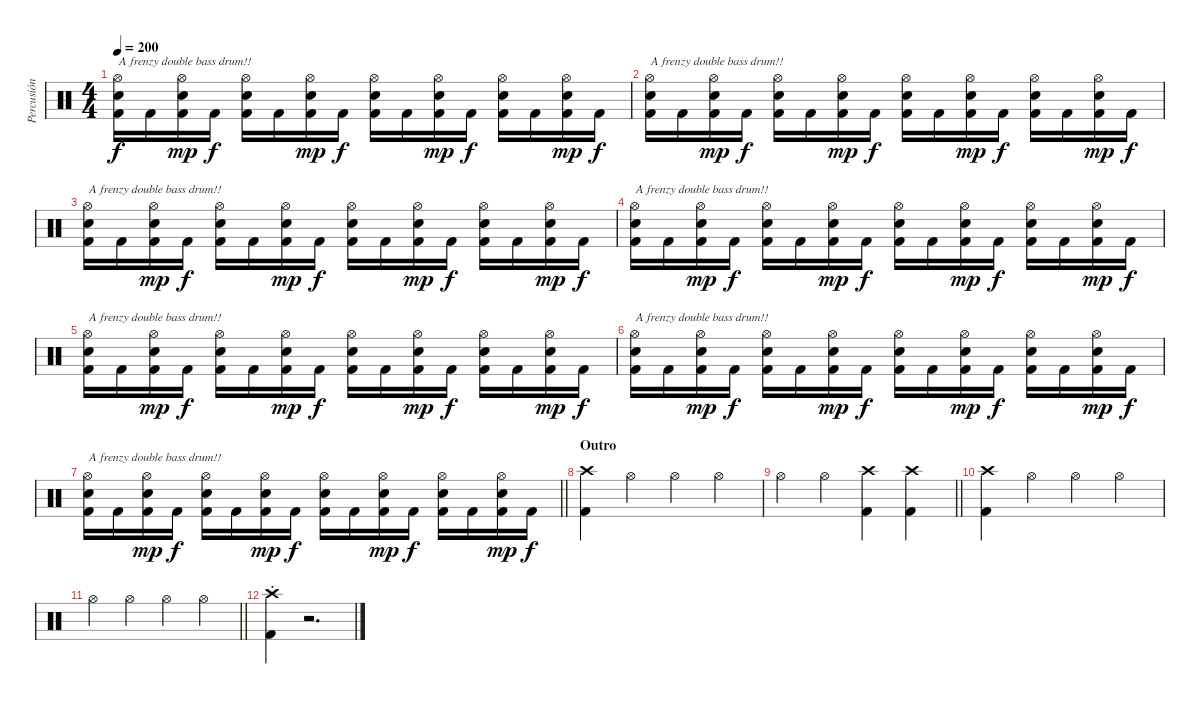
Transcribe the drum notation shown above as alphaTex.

\track ("Percusión" "Percusión") {instrument percussion}
\staff {score}
\articulation defaults
\ts (4 4)
\tempo 200
\clef neutral
\ks c
("Hi-Hat (open)" "Electric Snare (hit)" "Kick (hit) 2").16{txt "A frenzy double bass drum!! " dy f} "Kick (hit) 2".16 ("Hi-Hat (open)" "Electric Snare (hit)" "Kick (hit) 2").16{dy mp} "Kick (hit) 2".16{dy f} ("Hi-Hat (open)" "Electric Snare (hit)" "Kick (hit) 2").16 "Kick (hit) 2".16 ("Hi-Hat (open)" "Electric Snare (hit)" "Kick (hit) 2").16{dy mp} "Kick (hit) 2".16{dy f} ("Hi-Hat (open)" "Electric Snare (hit)" "Kick (hit) 2").16 "Kick (hit) 2".16 ("Hi-Hat (open)" "Electric Snare (hit)" "Kick (hit) 2").16{dy mp} "Kick (hit) 2".16{dy f} ("Hi-Hat (open)" "Electric Snare (hit)" "Kick (hit) 2").16 "Kick (hit) 2".16 ("Hi-Hat (open)" "Electric Snare (hit)" "Kick (hit) 2").16{dy mp} "Kick (hit) 2".16{dy f} |
("Hi-Hat (open)" "Electric Snare (hit)" "Kick (hit) 2").16{txt "A frenzy double bass drum!! "} "Kick (hit) 2".16 ("Hi-Hat (open)" "Electric Snare (hit)" "Kick (hit) 2").16{dy mp} "Kick (hit) 2".16{dy f} ("Hi-Hat (open)" "Electric Snare (hit)" "Kick (hit) 2").16 "Kick (hit) 2".16 ("Hi-Hat (open)" "Electric Snare (hit)" "Kick (hit) 2").16{dy mp} "Kick (hit) 2".16{dy f} ("Hi-Hat (open)" "Electric Snare (hit)" "Kick (hit) 2").16 "Kick (hit) 2".16 ("Hi-Hat (open)" "Electric Snare (hit)" "Kick (hit) 2").16{dy mp} "Kick (hit) 2".16{dy f} ("Hi-Hat (open)" "Electric Snare (hit)" "Kick (hit) 2").16 "Kick (hit) 2".16 ("Hi-Hat (open)" "Electric Snare (hit)" "Kick (hit) 2").16{dy mp} "Kick (hit) 2".16{dy f} |
("Hi-Hat (open)" "Electric Snare (hit)" "Kick (hit) 2").16{txt "A frenzy double bass drum!! "} "Kick (hit) 2".16 ("Hi-Hat (open)" "Electric Snare (hit)" "Kick (hit) 2").16{dy mp} "Kick (hit) 2".16{dy f} ("Hi-Hat (open)" "Electric Snare (hit)" "Kick (hit) 2").16 "Kick (hit) 2".16 ("Hi-Hat (open)" "Electric Snare (hit)" "Kick (hit) 2").16{dy mp} "Kick (hit) 2".16{dy f} ("Hi-Hat (open)" "Electric Snare (hit)" "Kick (hit) 2").16 "Kick (hit) 2".16 ("Hi-Hat (open)" "Electric Snare (hit)" "Kick (hit) 2").16{dy mp} "Kick (hit) 2".16{dy f} ("Hi-Hat (open)" "Electric Snare (hit)" "Kick (hit) 2").16 "Kick (hit) 2".16 ("Hi-Hat (open)" "Electric Snare (hit)" "Kick (hit) 2").16{dy mp} "Kick (hit) 2".16{dy f} |
("Hi-Hat (open)" "Electric Snare (hit)" "Kick (hit) 2").16{txt "A frenzy double bass drum!! "} "Kick (hit) 2".16 ("Hi-Hat (open)" "Electric Snare (hit)" "Kick (hit) 2").16{dy mp} "Kick (hit) 2".16{dy f} ("Hi-Hat (open)" "Electric Snare (hit)" "Kick (hit) 2").16 "Kick (hit) 2".16 ("Hi-Hat (open)" "Electric Snare (hit)" "Kick (hit) 2").16{dy mp} "Kick (hit) 2".16{dy f} ("Hi-Hat (open)" "Electric Snare (hit)" "Kick (hit) 2").16 "Kick (hit) 2".16 ("Hi-Hat (open)" "Electric Snare (hit)" "Kick (hit) 2").16{dy mp} "Kick (hit) 2".16{dy f} ("Hi-Hat (open)" "Electric Snare (hit)" "Kick (hit) 2").16 "Kick (hit) 2".16 ("Hi-Hat (open)" "Electric Snare (hit)" "Kick (hit) 2").16{dy mp} "Kick (hit) 2".16{dy f} |
("Hi-Hat (open)" "Electric Snare (hit)" "Kick (hit) 2").16{txt "A frenzy double bass drum!! "} "Kick (hit) 2".16 ("Hi-Hat (open)" "Electric Snare (hit)" "Kick (hit) 2").16{dy mp} "Kick (hit) 2".16{dy f} ("Hi-Hat (open)" "Electric Snare (hit)" "Kick (hit) 2").16 "Kick (hit) 2".16 ("Hi-Hat (open)" "Electric Snare (hit)" "Kick (hit) 2").16{dy mp} "Kick (hit) 2".16{dy f} ("Hi-Hat (open)" "Electric Snare (hit)" "Kick (hit) 2").16 "Kick (hit) 2".16 ("Hi-Hat (open)" "Electric Snare (hit)" "Kick (hit) 2").16{dy mp} "Kick (hit) 2".16{dy f} ("Hi-Hat (open)" "Electric Snare (hit)" "Kick (hit) 2").16 "Kick (hit) 2".16 ("Hi-Hat (open)" "Electric Snare (hit)" "Kick (hit) 2").16{dy mp} "Kick (hit) 2".16{dy f} |
("Hi-Hat (open)" "Electric Snare (hit)" "Kick (hit) 2").16{txt "A frenzy double bass drum!! "} "Kick (hit) 2".16 ("Hi-Hat (open)" "Electric Snare (hit)" "Kick (hit) 2").16{dy mp} "Kick (hit) 2".16{dy f} ("Hi-Hat (open)" "Electric Snare (hit)" "Kick (hit) 2").16 "Kick (hit) 2".16 ("Hi-Hat (open)" "Electric Snare (hit)" "Kick (hit) 2").16{dy mp} "Kick (hit) 2".16{dy f} ("Hi-Hat (open)" "Electric Snare (hit)" "Kick (hit) 2").16 "Kick (hit) 2".16 ("Hi-Hat (open)" "Electric Snare (hit)" "Kick (hit) 2").16{dy mp} "Kick (hit) 2".16{dy f} ("Hi-Hat (open)" "Electric Snare (hit)" "Kick (hit) 2").16 "Kick (hit) 2".16 ("Hi-Hat (open)" "Electric Snare (hit)" "Kick (hit) 2").16{dy mp} "Kick (hit) 2".16{dy f} |
\barLineRight lightlight
("Hi-Hat (open)" "Electric Snare (hit)" "Kick (hit) 2").16{txt "A frenzy double bass drum!! "} "Kick (hit) 2".16 ("Hi-Hat (open)" "Electric Snare (hit)" "Kick (hit) 2").16{dy mp} "Kick (hit) 2".16{dy f} ("Hi-Hat (open)" "Electric Snare (hit)" "Kick (hit) 2").16 "Kick (hit) 2".16 ("Hi-Hat (open)" "Electric Snare (hit)" "Kick (hit) 2").16{dy mp} "Kick (hit) 2".16{dy f} ("Hi-Hat (open)" "Electric Snare (hit)" "Kick (hit) 2").16 "Kick (hit) 2".16 ("Hi-Hat (open)" "Electric Snare (hit)" "Kick (hit) 2").16{dy mp} "Kick (hit) 2".16{dy f} ("Hi-Hat (open)" "Electric Snare (hit)" "Kick (hit) 2").16 "Kick (hit) 2".16 ("Hi-Hat (open)" "Electric Snare (hit)" "Kick (hit) 2").16{dy mp} "Kick (hit) 2".16{dy f} |
\section ("" "Outro ")
("Crash high (hit)" "Kick (hit) 2").4 "Hi-Hat (open)".4 "Hi-Hat (open)".4 "Hi-Hat (open)".4 |
\barLineRight lightlight "Hi-Hat (open)".4 "Hi-Hat (open)".4
("Crash high (hit)" "Kick (hit) 2").4 ("Crash high (hit)" "Kick (hit) 2").4 |
("Crash high (hit)" "Kick (hit) 2").4 "Hi-Hat (open)".4 "Hi-Hat (open)".4 "Hi-Hat (open)".4 |
\barLineRight lightlight "Hi-Hat (open)".4 "Hi-Hat (open)".4 "Hi-Hat (open)".4 "Hi-Hat (open)".4
|
("Crash high (hit)"{st} "Kick (hit) 2").4 r.2{d}
